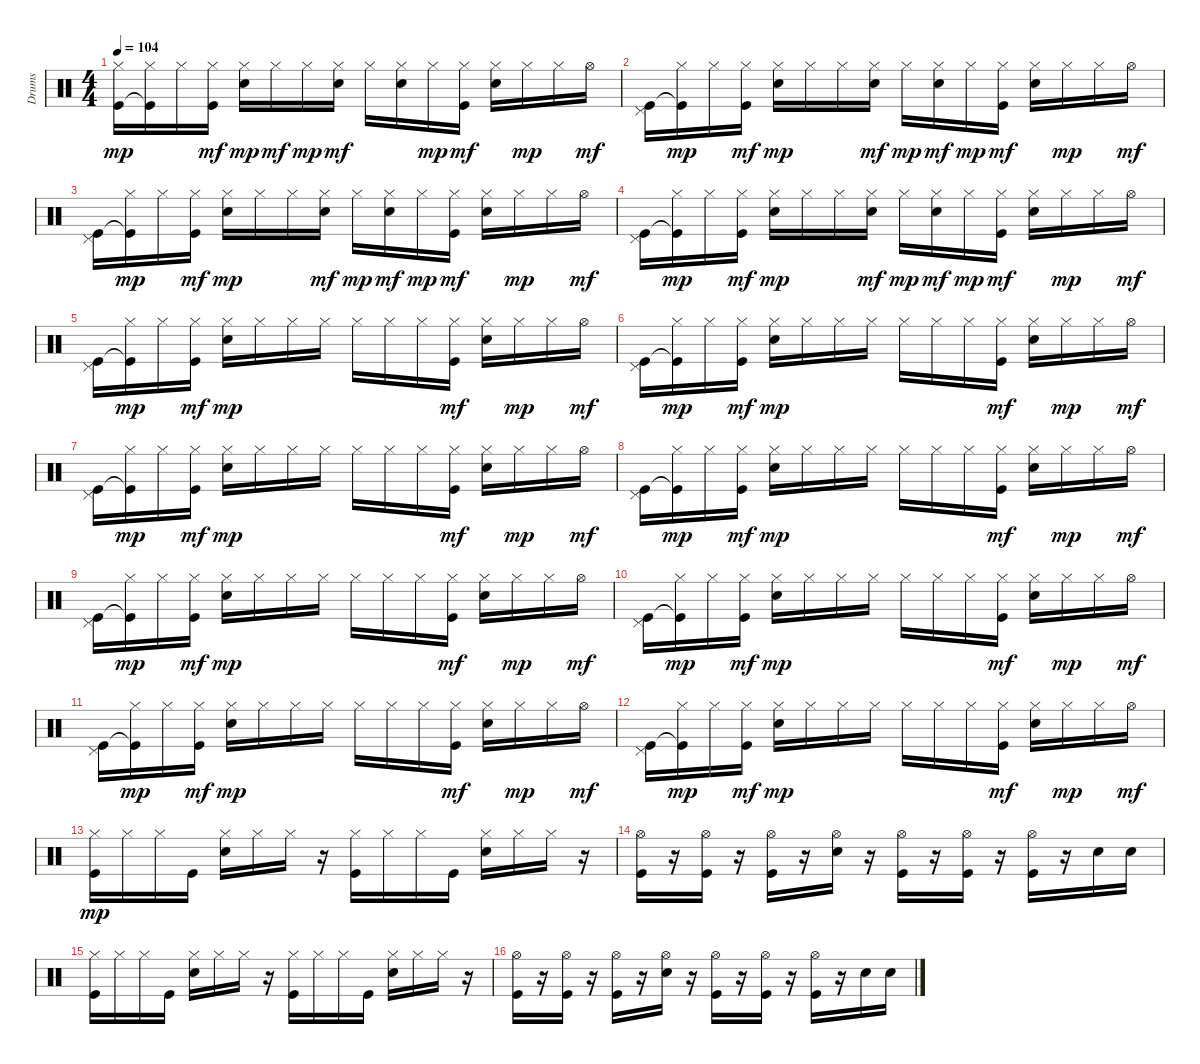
\track ("Drums" "Drums") {instrument percussion}
\staff {score}
\articulation defaults
\ts (4 4)
\tempo 104
\clef neutral
\ks c
("Hi-Hat (closed)" "Kick (hit)").16{dy mp} ("Hi-Hat (closed)" "Kick (hit)"{t}).16 "Hi-Hat (closed)".16 ("Hi-Hat (closed)" "Kick (hit)").16{dy mf} ("Hi-Hat (closed)" "Snare (hit) 2").16{dy mp} "Hi-Hat (closed)".16{dy mf} "Hi-Hat (closed)".16{dy mp} ("Hi-Hat (closed)" "Snare (hit) 2").16{dy mf} "Hi-Hat (closed)".16 ("Hi-Hat (closed)" "Snare (hit) 2").16 "Hi-Hat (closed)".16{dy mp} ("Hi-Hat (closed)" "Kick (hit)").16{dy mf} ("Hi-Hat (closed)" "Snare (hit) 2").16 "Hi-Hat (closed)".16{dy mp} "Hi-Hat (closed)".16 "Hi-Hat (open)".16{dy mf} |
("Pedal Hi-Hat (hit)" "Kick (hit)").16 ("Hi-Hat (closed)" "Kick (hit)"{t}).16{dy mp} "Hi-Hat (closed)".16 ("Hi-Hat (closed)" "Kick (hit)").16{dy mf} ("Hi-Hat (closed)" "Snare (hit) 2").16{dy mp} "Hi-Hat (closed)".16 "Hi-Hat (closed)".16 ("Hi-Hat (closed)" "Snare (hit) 2").16{dy mf} "Hi-Hat (closed)".16{dy mp} ("Hi-Hat (closed)" "Snare (hit) 2").16{dy mf} "Hi-Hat (closed)".16{dy mp} ("Hi-Hat (closed)" "Kick (hit)").16{dy mf} ("Hi-Hat (closed)" "Snare (hit) 2").16 "Hi-Hat (closed)".16{dy mp} "Hi-Hat (closed)".16 "Hi-Hat (open)".16{dy mf} |
("Pedal Hi-Hat (hit)" "Kick (hit)").16 ("Hi-Hat (closed)" "Kick (hit)"{t}).16{dy mp} "Hi-Hat (closed)".16 ("Hi-Hat (closed)" "Kick (hit)").16{dy mf} ("Hi-Hat (closed)" "Snare (hit) 2").16{dy mp} "Hi-Hat (closed)".16 "Hi-Hat (closed)".16 ("Hi-Hat (closed)" "Snare (hit) 2").16{dy mf} "Hi-Hat (closed)".16{dy mp} ("Hi-Hat (closed)" "Snare (hit) 2").16{dy mf} "Hi-Hat (closed)".16{dy mp} ("Hi-Hat (closed)" "Kick (hit)").16{dy mf} ("Hi-Hat (closed)" "Snare (hit) 2").16 "Hi-Hat (closed)".16{dy mp} "Hi-Hat (closed)".16 "Hi-Hat (open)".16{dy mf} |
("Pedal Hi-Hat (hit)" "Kick (hit)").16 ("Hi-Hat (closed)" "Kick (hit)"{t}).16{dy mp} "Hi-Hat (closed)".16 ("Hi-Hat (closed)" "Kick (hit)").16{dy mf} ("Hi-Hat (closed)" "Snare (hit) 2").16{dy mp} "Hi-Hat (closed)".16 "Hi-Hat (closed)".16 ("Hi-Hat (closed)" "Snare (hit) 2").16{dy mf} "Hi-Hat (closed)".16{dy mp} ("Hi-Hat (closed)" "Snare (hit) 2").16{dy mf} "Hi-Hat (closed)".16{dy mp} ("Hi-Hat (closed)" "Kick (hit)").16{dy mf} ("Hi-Hat (closed)" "Snare (hit) 2").16 "Hi-Hat (closed)".16{dy mp} "Hi-Hat (closed)".16 "Hi-Hat (open)".16{dy mf} |
("Pedal Hi-Hat (hit)" "Kick (hit)").16 ("Hi-Hat (closed)" "Kick (hit)"{t}).16{dy mp} "Hi-Hat (closed)".16 ("Hi-Hat (closed)" "Kick (hit)").16{dy mf} ("Hi-Hat (closed)" "Snare (hit) 2").16{dy mp} "Hi-Hat (closed)".16 "Hi-Hat (closed)".16 "Hi-Hat (closed)".16 "Hi-Hat (closed)".16 "Hi-Hat (closed)".16 "Hi-Hat (closed)".16 ("Hi-Hat (closed)" "Kick (hit)").16{dy mf} ("Hi-Hat (closed)" "Snare (hit) 2").16 "Hi-Hat (closed)".16{dy mp} "Hi-Hat (closed)".16 "Hi-Hat (open)".16{dy mf} |
("Pedal Hi-Hat (hit)" "Kick (hit)").16 ("Hi-Hat (closed)" "Kick (hit)"{t}).16{dy mp} "Hi-Hat (closed)".16 ("Hi-Hat (closed)" "Kick (hit)").16{dy mf} ("Hi-Hat (closed)" "Snare (hit) 2").16{dy mp} "Hi-Hat (closed)".16 "Hi-Hat (closed)".16 "Hi-Hat (closed)".16 "Hi-Hat (closed)".16 "Hi-Hat (closed)".16 "Hi-Hat (closed)".16 ("Hi-Hat (closed)" "Kick (hit)").16{dy mf} ("Hi-Hat (closed)" "Snare (hit) 2").16 "Hi-Hat (closed)".16{dy mp} "Hi-Hat (closed)".16 "Hi-Hat (open)".16{dy mf} |
("Pedal Hi-Hat (hit)" "Kick (hit)").16 ("Hi-Hat (closed)" "Kick (hit)"{t}).16{dy mp} "Hi-Hat (closed)".16 ("Hi-Hat (closed)" "Kick (hit)").16{dy mf} ("Hi-Hat (closed)" "Snare (hit) 2").16{dy mp} "Hi-Hat (closed)".16 "Hi-Hat (closed)".16 "Hi-Hat (closed)".16 "Hi-Hat (closed)".16 "Hi-Hat (closed)".16 "Hi-Hat (closed)".16 ("Hi-Hat (closed)" "Kick (hit)").16{dy mf} ("Hi-Hat (closed)" "Snare (hit) 2").16 "Hi-Hat (closed)".16{dy mp} "Hi-Hat (closed)".16 "Hi-Hat (open)".16{dy mf} |
("Pedal Hi-Hat (hit)" "Kick (hit)").16 ("Hi-Hat (closed)" "Kick (hit)"{t}).16{dy mp} "Hi-Hat (closed)".16 ("Hi-Hat (closed)" "Kick (hit)").16{dy mf} ("Hi-Hat (closed)" "Snare (hit) 2").16{dy mp} "Hi-Hat (closed)".16 "Hi-Hat (closed)".16 "Hi-Hat (closed)".16 "Hi-Hat (closed)".16 "Hi-Hat (closed)".16 "Hi-Hat (closed)".16 ("Hi-Hat (closed)" "Kick (hit)").16{dy mf} ("Hi-Hat (closed)" "Snare (hit) 2").16 "Hi-Hat (closed)".16{dy mp} "Hi-Hat (closed)".16 "Hi-Hat (open)".16{dy mf} |
("Pedal Hi-Hat (hit)" "Kick (hit)").16 ("Hi-Hat (closed)" "Kick (hit)"{t}).16{dy mp} "Hi-Hat (closed)".16 ("Hi-Hat (closed)" "Kick (hit)").16{dy mf} ("Hi-Hat (closed)" "Snare (hit) 2").16{dy mp} "Hi-Hat (closed)".16 "Hi-Hat (closed)".16 "Hi-Hat (closed)".16 "Hi-Hat (closed)".16 "Hi-Hat (closed)".16 "Hi-Hat (closed)".16 ("Hi-Hat (closed)" "Kick (hit)").16{dy mf} ("Hi-Hat (closed)" "Snare (hit) 2").16 "Hi-Hat (closed)".16{dy mp} "Hi-Hat (closed)".16 "Hi-Hat (open)".16{dy mf} |
("Pedal Hi-Hat (hit)" "Kick (hit)").16 ("Hi-Hat (closed)" "Kick (hit)"{t}).16{dy mp} "Hi-Hat (closed)".16 ("Hi-Hat (closed)" "Kick (hit)").16{dy mf} ("Hi-Hat (closed)" "Snare (hit) 2").16{dy mp} "Hi-Hat (closed)".16 "Hi-Hat (closed)".16 "Hi-Hat (closed)".16 "Hi-Hat (closed)".16 "Hi-Hat (closed)".16 "Hi-Hat (closed)".16 ("Hi-Hat (closed)" "Kick (hit)").16{dy mf} ("Hi-Hat (closed)" "Snare (hit) 2").16 "Hi-Hat (closed)".16{dy mp} "Hi-Hat (closed)".16 "Hi-Hat (open)".16{dy mf} |
("Pedal Hi-Hat (hit)" "Kick (hit)").16 ("Hi-Hat (closed)" "Kick (hit)"{t}).16{dy mp} "Hi-Hat (closed)".16 ("Hi-Hat (closed)" "Kick (hit)").16{dy mf} ("Hi-Hat (closed)" "Snare (hit) 2").16{dy mp} "Hi-Hat (closed)".16 "Hi-Hat (closed)".16 "Hi-Hat (closed)".16 "Hi-Hat (closed)".16 "Hi-Hat (closed)".16 "Hi-Hat (closed)".16 ("Hi-Hat (closed)" "Kick (hit)").16{dy mf} ("Hi-Hat (closed)" "Snare (hit) 2").16 "Hi-Hat (closed)".16{dy mp} "Hi-Hat (closed)".16 "Hi-Hat (open)".16{dy mf} |
("Pedal Hi-Hat (hit)" "Kick (hit)").16 ("Hi-Hat (closed)" "Kick (hit)"{t}).16{dy mp} "Hi-Hat (closed)".16 ("Hi-Hat (closed)" "Kick (hit)").16{dy mf} ("Hi-Hat (closed)" "Snare (hit) 2").16{dy mp} "Hi-Hat (closed)".16 "Hi-Hat (closed)".16 "Hi-Hat (closed)".16 "Hi-Hat (closed)".16 "Hi-Hat (closed)".16 "Hi-Hat (closed)".16 ("Hi-Hat (closed)" "Kick (hit)").16{dy mf} ("Hi-Hat (closed)" "Snare (hit) 2").16 "Hi-Hat (closed)".16{dy mp} "Hi-Hat (closed)".16 "Hi-Hat (open)".16{dy mf} |
("Hi-Hat (closed)" "Kick (hit)").16{dy mp} "Hi-Hat (closed)".16 "Hi-Hat (closed)".16 "Kick (hit)".16 ("Hi-Hat (closed)" "Snare (hit) 2").16 "Hi-Hat (closed)".16 "Hi-Hat (closed)".16 r.16 ("Hi-Hat (closed)" "Kick (hit)").16 "Hi-Hat (closed)".16 "Hi-Hat (closed)".16 "Kick (hit)".16 ("Hi-Hat (closed)" "Snare (hit) 2").16 "Hi-Hat (closed)".16 "Hi-Hat (closed)".16 r.16 |
("Hi-Hat (open)" "Kick (hit)").16 r.16 ("Hi-Hat (open)" "Kick (hit)").16 r.16 ("Hi-Hat (open)" "Kick (hit)").16 r.16 ("Hi-Hat (open)" "Snare (hit) 2").16 r.16 ("Hi-Hat (open)" "Kick (hit)").16 r.16 ("Hi-Hat (open)" "Kick (hit)").16 r.16 ("Hi-Hat (open)" "Kick (hit)").16 r.16 "Snare (hit) 2".16 "Snare (hit) 2".16 |
("Hi-Hat (closed)" "Kick (hit)").16 "Hi-Hat (closed)".16 "Hi-Hat (closed)".16 "Kick (hit)".16 ("Hi-Hat (closed)" "Snare (hit) 2").16 "Hi-Hat (closed)".16 "Hi-Hat (closed)".16 r.16 ("Hi-Hat (closed)" "Kick (hit)").16 "Hi-Hat (closed)".16 "Hi-Hat (closed)".16 "Kick (hit)".16 ("Hi-Hat (closed)" "Snare (hit) 2").16 "Hi-Hat (closed)".16 "Hi-Hat (closed)".16 r.16 |
("Hi-Hat (open)" "Kick (hit)").16 r.16 ("Hi-Hat (open)" "Kick (hit)").16 r.16 ("Hi-Hat (open)" "Kick (hit)").16 r.16 ("Hi-Hat (open)" "Snare (hit) 2").16 r.16 ("Hi-Hat (open)" "Kick (hit)").16 r.16 ("Hi-Hat (open)" "Kick (hit)").16 r.16 ("Hi-Hat (open)" "Kick (hit)").16 r.16 "Snare (hit) 2".16 "Snare (hit) 2".16
